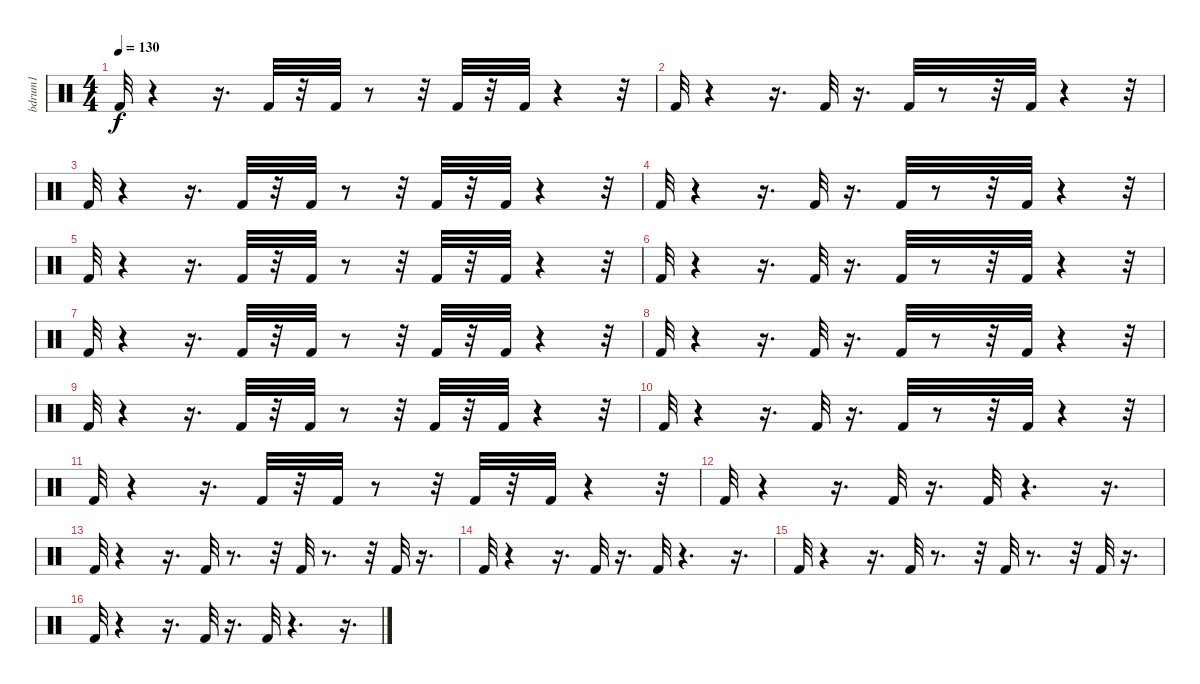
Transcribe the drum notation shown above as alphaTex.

\track ("bdrum1              " "bdrum1    ") {instrument percussion}
\staff {score}
\articulation defaults
\ts (4 4)
\tempo 130
\clef neutral
\ks c "Kick (hit) 2".32{dy f}
r.4 r.16{d} "Kick (hit) 2".32 r.32 "Kick (hit) 2".32 r.8 r.32 "Kick (hit) 2".32 r.32 "Kick (hit) 2".32 r.4 r.32 |
"Kick (hit) 2".32 r.4 r.16{d} "Kick (hit) 2".32 r.16{d} "Kick (hit) 2".32 r.8 r.32 "Kick (hit) 2".32 r.4 r.32 |
"Kick (hit) 2".32 r.4 r.16{d} "Kick (hit) 2".32 r.32 "Kick (hit) 2".32 r.8 r.32 "Kick (hit) 2".32 r.32 "Kick (hit) 2".32 r.4 r.32 |
"Kick (hit) 2".32 r.4 r.16{d} "Kick (hit) 2".32 r.16{d} "Kick (hit) 2".32 r.8 r.32 "Kick (hit) 2".32 r.4 r.32 |
"Kick (hit) 2".32 r.4 r.16{d} "Kick (hit) 2".32 r.32 "Kick (hit) 2".32 r.8 r.32 "Kick (hit) 2".32 r.32 "Kick (hit) 2".32 r.4 r.32 |
"Kick (hit) 2".32 r.4 r.16{d} "Kick (hit) 2".32 r.16{d} "Kick (hit) 2".32 r.8 r.32 "Kick (hit) 2".32 r.4 r.32 |
"Kick (hit) 2".32 r.4 r.16{d} "Kick (hit) 2".32 r.32 "Kick (hit) 2".32 r.8 r.32 "Kick (hit) 2".32 r.32 "Kick (hit) 2".32 r.4 r.32 |
"Kick (hit) 2".32 r.4 r.16{d} "Kick (hit) 2".32 r.16{d} "Kick (hit) 2".32 r.8 r.32 "Kick (hit) 2".32 r.4 r.32 |
"Kick (hit) 2".32 r.4 r.16{d} "Kick (hit) 2".32 r.32 "Kick (hit) 2".32 r.8 r.32 "Kick (hit) 2".32 r.32 "Kick (hit) 2".32 r.4 r.32 |
"Kick (hit) 2".32 r.4 r.16{d} "Kick (hit) 2".32 r.16{d} "Kick (hit) 2".32 r.8 r.32 "Kick (hit) 2".32 r.4 r.32 |
"Kick (hit) 2".32 r.4 r.16{d} "Kick (hit) 2".32 r.32 "Kick (hit) 2".32 r.8 r.32 "Kick (hit) 2".32 r.32 "Kick (hit) 2".32 r.4 r.32 |
"Kick (hit) 2".32 r.4 r.16{d} "Kick (hit) 2".32 r.16{d} "Kick (hit) 2".32 r.4{d} r.16{d} |
"Kick (hit) 2".32 r.4 r.16{d} "Kick (hit) 2".32 r.8{d} r.32 "Kick (hit) 2".32 r.8{d} r.32 "Kick (hit) 2".32 r.16{d} |
"Kick (hit) 2".32 r.4 r.16{d} "Kick (hit) 2".32 r.16{d} "Kick (hit) 2".32 r.4{d} r.16{d} |
"Kick (hit) 2".32 r.4 r.16{d} "Kick (hit) 2".32 r.8{d} r.32 "Kick (hit) 2".32 r.8{d} r.32 "Kick (hit) 2".32 r.16{d} |
"Kick (hit) 2".32 r.4 r.16{d} "Kick (hit) 2".32 r.16{d} "Kick (hit) 2".32 r.4{d} r.16{d}
